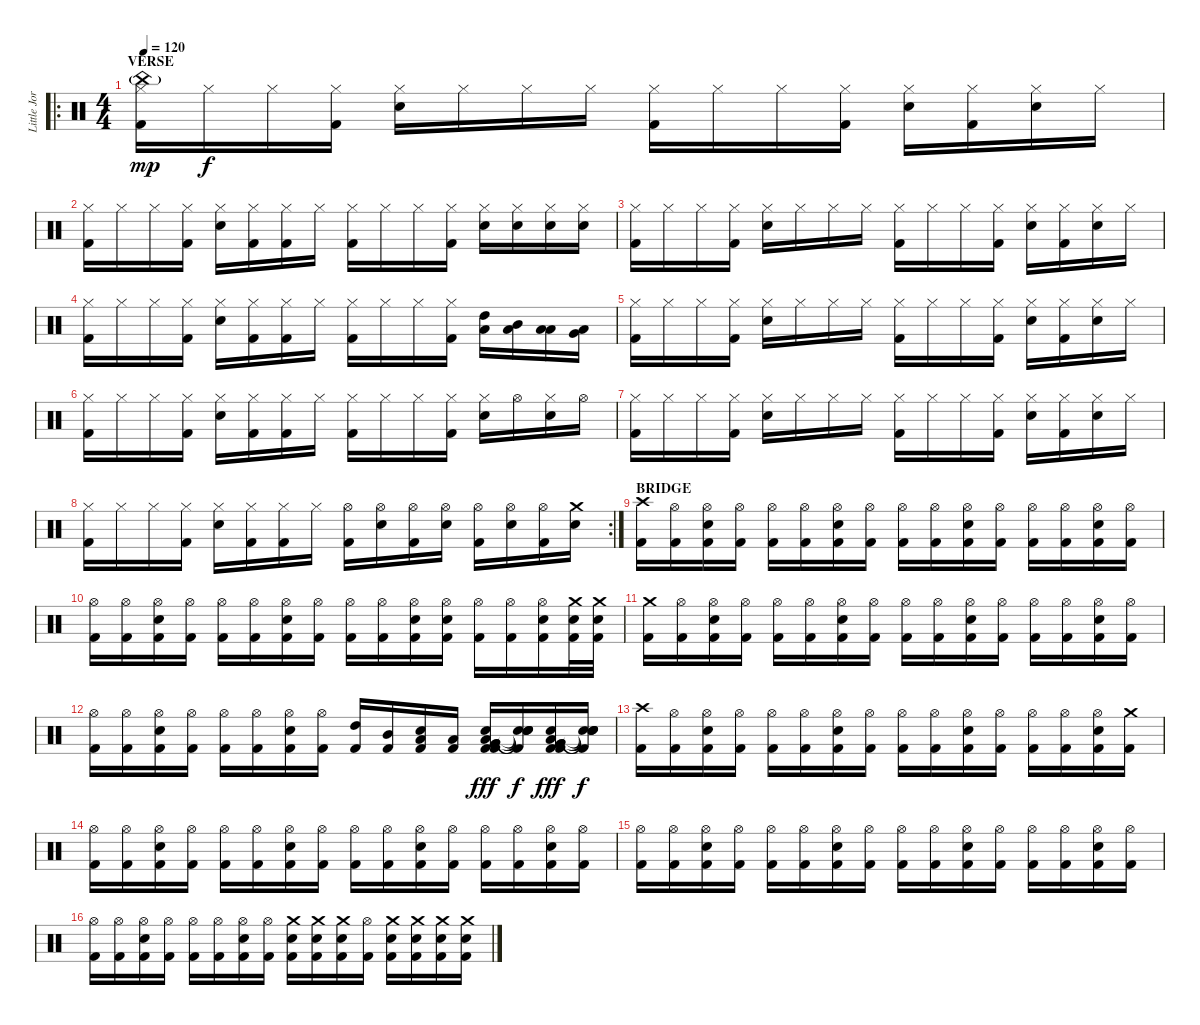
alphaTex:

\track ("Little Jordison" "Little Jor") {instrument percussion}
\staff {score}
\articulation defaults
\ro
\ts (4 4)
\section ("" "VERSE")
\tempo 120
\clef neutral
\ks c
("China (hit)"{g} "Hi-Hat (closed)" "Kick (hit) 2").16{dy mp} "Hi-Hat (closed)".16{dy f} "Hi-Hat (closed)".16 ("Hi-Hat (closed)" "Kick (hit) 2").16 ("Hi-Hat (closed)" "Electric Snare (hit)").16 "Hi-Hat (closed)".16 "Hi-Hat (closed)".16 "Hi-Hat (closed)".16 ("Hi-Hat (closed)" "Kick (hit) 2").16 "Hi-Hat (closed)".16 "Hi-Hat (closed)".16 ("Hi-Hat (closed)" "Kick (hit) 2").16 ("Hi-Hat (closed)" "Electric Snare (hit)").16 ("Hi-Hat (closed)" "Kick (hit) 2").16 ("Hi-Hat (closed)" "Electric Snare (hit)").16 "Hi-Hat (closed)".16 |
("Hi-Hat (closed)" "Kick (hit) 2").16 "Hi-Hat (closed)".16 "Hi-Hat (closed)".16 ("Hi-Hat (closed)" "Kick (hit) 2").16 ("Hi-Hat (closed)" "Electric Snare (hit)").16 ("Hi-Hat (closed)" "Kick (hit) 2").16 ("Hi-Hat (closed)" "Kick (hit) 2").16 "Hi-Hat (closed)".16 ("Hi-Hat (closed)" "Kick (hit) 2").16 "Hi-Hat (closed)".16 "Hi-Hat (closed)".16 ("Hi-Hat (closed)" "Kick (hit) 2").16 ("Hi-Hat (closed)" "Electric Snare (hit)").16 ("Hi-Hat (closed)" "Electric Snare (hit)").16 ("Hi-Hat (closed)" "Electric Snare (hit)").16 ("Hi-Hat (closed)" "Electric Snare (hit)").16 |
("Hi-Hat (closed)" "Kick (hit) 2").16 "Hi-Hat (closed)".16 "Hi-Hat (closed)".16 ("Hi-Hat (closed)" "Kick (hit) 2").16 ("Hi-Hat (closed)" "Electric Snare (hit)").16 "Hi-Hat (closed)".16 "Hi-Hat (closed)".16 "Hi-Hat (closed)".16 ("Hi-Hat (closed)" "Kick (hit) 2").16 "Hi-Hat (closed)".16 "Hi-Hat (closed)".16 ("Hi-Hat (closed)" "Kick (hit) 2").16 ("Hi-Hat (closed)" "Electric Snare (hit)").16 ("Hi-Hat (closed)" "Kick (hit) 2").16 ("Hi-Hat (closed)" "Electric Snare (hit)").16 "Hi-Hat (closed)".16 |
("Hi-Hat (closed)" "Kick (hit) 2").16 "Hi-Hat (closed)".16 "Hi-Hat (closed)".16 ("Hi-Hat (closed)" "Kick (hit) 2").16 ("Hi-Hat (closed)" "Electric Snare (hit)").16 ("Hi-Hat (closed)" "Kick (hit) 2").16 ("Hi-Hat (closed)" "Kick (hit) 2").16 "Hi-Hat (closed)".16 ("Hi-Hat (closed)" "Kick (hit) 2").16 "Hi-Hat (closed)".16 "Hi-Hat (closed)".16 ("Hi-Hat (closed)" "Kick (hit) 2").16 ("High Tom (hit)" "Low Floor Tom (hit)").16 ("Mid Tom (hit)" "Low Floor Tom (hit)").16 ("Low Tom (hit)" "Low Floor Tom (hit)").16 ("Very Low Tom (hit)" "Low Floor Tom (hit)").16 |
("Hi-Hat (closed)" "Kick (hit) 2").16 "Hi-Hat (closed)".16 "Hi-Hat (closed)".16 ("Hi-Hat (closed)" "Kick (hit) 2").16 ("Hi-Hat (closed)" "Electric Snare (hit)").16 "Hi-Hat (closed)".16 "Hi-Hat (closed)".16 "Hi-Hat (closed)".16 ("Hi-Hat (closed)" "Kick (hit) 2").16 "Hi-Hat (closed)".16 "Hi-Hat (closed)".16 ("Hi-Hat (closed)" "Kick (hit) 2").16 ("Hi-Hat (closed)" "Electric Snare (hit)").16 ("Hi-Hat (closed)" "Kick (hit) 2").16 ("Hi-Hat (closed)" "Electric Snare (hit)").16 "Hi-Hat (closed)".16 |
("Hi-Hat (closed)" "Kick (hit) 2").16 "Hi-Hat (closed)".16 "Hi-Hat (closed)".16 ("Hi-Hat (closed)" "Kick (hit) 2").16 ("Hi-Hat (closed)" "Electric Snare (hit)").16 ("Hi-Hat (closed)" "Kick (hit) 2").16 ("Hi-Hat (closed)" "Kick (hit) 2").16 "Hi-Hat (closed)".16 ("Hi-Hat (closed)" "Kick (hit) 2").16 "Hi-Hat (closed)".16 "Hi-Hat (closed)".16 ("Hi-Hat (closed)" "Kick (hit) 2").16 ("Hi-Hat (closed)" "Electric Snare (hit)").16 "Hi-Hat (open)".16 ("Hi-Hat (closed)" "Electric Snare (hit)").16 "Hi-Hat (open)".16 |
("Hi-Hat (closed)" "Kick (hit) 2").16 "Hi-Hat (closed)".16 "Hi-Hat (closed)".16 ("Hi-Hat (closed)" "Kick (hit) 2").16 ("Hi-Hat (closed)" "Electric Snare (hit)").16 "Hi-Hat (closed)".16 "Hi-Hat (closed)".16 "Hi-Hat (closed)".16 ("Hi-Hat (closed)" "Kick (hit) 2").16 "Hi-Hat (closed)".16 "Hi-Hat (closed)".16 ("Hi-Hat (closed)" "Kick (hit) 2").16 ("Hi-Hat (closed)" "Electric Snare (hit)").16 ("Hi-Hat (closed)" "Kick (hit) 2").16 ("Hi-Hat (closed)" "Electric Snare (hit)").16 "Hi-Hat (closed)".16 |
\rc 2
("Hi-Hat (closed)" "Kick (hit) 2").16 "Hi-Hat (closed)".16 "Hi-Hat (closed)".16 ("Hi-Hat (closed)" "Kick (hit) 2").16 ("Hi-Hat (closed)" "Electric Snare (hit)").16 ("Hi-Hat (closed)" "Kick (hit) 2").16 ("Hi-Hat (closed)" "Kick (hit) 2").16 "Hi-Hat (closed)".16 ("Hi-Hat (open)" "Kick (hit) 2").16 ("Hi-Hat (open)" "Electric Snare (hit)").16 ("Hi-Hat (open)" "Kick (hit) 2").16 ("Hi-Hat (open)" "Electric Snare (hit)").16 ("Hi-Hat (open)" "Kick (hit) 2").16 ("Hi-Hat (open)" "Electric Snare (hit)").16 ("Hi-Hat (open)" "Kick (hit) 2").16 ("Crash medium (hit)" "Electric Snare (hit)").16 |
\section ("" "BRIDGE")
("Crash high (hit)" "Kick (hit) 2").16 ("Hi-Hat (open)" "Kick (hit) 2").16 ("Hi-Hat (open)" "Electric Snare (hit)" "Kick (hit) 2").16 ("Hi-Hat (open)" "Kick (hit) 2").16 ("Hi-Hat (open)" "Kick (hit) 2").16 ("Hi-Hat (open)" "Kick (hit) 2").16 ("Hi-Hat (open)" "Electric Snare (hit)" "Kick (hit) 2").16 ("Hi-Hat (open)" "Kick (hit) 2").16 ("Hi-Hat (open)" "Kick (hit) 2").16 ("Hi-Hat (open)" "Kick (hit) 2").16 ("Hi-Hat (open)" "Electric Snare (hit)" "Kick (hit) 2").16 ("Hi-Hat (open)" "Kick (hit) 2").16 ("Hi-Hat (open)" "Kick (hit) 2").16 ("Hi-Hat (open)" "Kick (hit) 2").16 ("Hi-Hat (open)" "Electric Snare (hit)" "Kick (hit) 2").16 ("Hi-Hat (open)" "Kick (hit) 2").16 |
("Hi-Hat (open)" "Kick (hit) 2").16 ("Hi-Hat (open)" "Kick (hit) 2").16 ("Hi-Hat (open)" "Electric Snare (hit)" "Kick (hit) 2").16 ("Hi-Hat (open)" "Kick (hit) 2").16 ("Hi-Hat (open)" "Kick (hit) 2").16 ("Hi-Hat (open)" "Kick (hit) 2").16 ("Hi-Hat (open)" "Electric Snare (hit)" "Kick (hit) 2").16 ("Hi-Hat (open)" "Kick (hit) 2").16 ("Hi-Hat (open)" "Kick (hit) 2").16 ("Hi-Hat (open)" "Kick (hit) 2").16 ("Hi-Hat (open)" "Electric Snare (hit)" "Kick (hit) 2").16 ("Hi-Hat (open)" "Electric Snare (hit)" "Kick (hit) 2").16 ("Hi-Hat (open)" "Kick (hit) 2").16 ("Hi-Hat (open)" "Kick (hit) 2").16 ("Hi-Hat (open)" "Electric Snare (hit)" "Kick (hit) 2").16 ("Crash medium (hit)" "Electric Snare (hit)" "Kick (hit) 2").32 ("Crash medium (hit)" "Electric Snare (hit)" "Kick (hit) 2").32 |
("Crash medium (hit)" "Kick (hit) 2").16 ("Hi-Hat (open)" "Kick (hit) 2").16 ("Hi-Hat (open)" "Electric Snare (hit)" "Kick (hit) 2").16 ("Hi-Hat (open)" "Kick (hit) 2").16 ("Hi-Hat (open)" "Kick (hit) 2").16 ("Hi-Hat (open)" "Kick (hit) 2").16 ("Hi-Hat (open)" "Electric Snare (hit)" "Kick (hit) 2").16 ("Hi-Hat (open)" "Kick (hit) 2").16 ("Hi-Hat (open)" "Kick (hit) 2").16 ("Hi-Hat (open)" "Kick (hit) 2").16 ("Hi-Hat (open)" "Electric Snare (hit)" "Kick (hit) 2").16 ("Hi-Hat (open)" "Kick (hit) 2").16 ("Hi-Hat (open)" "Kick (hit) 2").16 ("Hi-Hat (open)" "Kick (hit) 2").16 ("Hi-Hat (open)" "Electric Snare (hit)" "Kick (hit) 2").16 ("Hi-Hat (open)" "Kick (hit) 2").16 |
("Hi-Hat (open)" "Kick (hit) 2").16 ("Hi-Hat (open)" "Kick (hit) 2").16 ("Hi-Hat (open)" "Electric Snare (hit)" "Kick (hit) 2").16 ("Hi-Hat (open)" "Kick (hit) 2").16 ("Hi-Hat (open)" "Kick (hit) 2").16 ("Hi-Hat (open)" "Kick (hit) 2").16 ("Hi-Hat (open)" "Electric Snare (hit)" "Kick (hit) 2").16 ("Hi-Hat (open)" "Kick (hit) 2").16 ("High Tom (hit)" "Kick (hit) 2").16 ("Mid Tom (hit)" "Kick (hit) 2").16 ("Low Tom (hit)" "Electric Snare (hit)" "Kick (hit) 2").16 ("Low Tom (hit)" "Kick (hit) 2").16 ("Kick (hit) 2" "Very Low Tom (hit)" "Low Tom (hit)" "Very Low Tom (hit)" "Electric Snare (hit)" "Kick (hit) 2").16{dy fff} ("Snare (hit)"{t} "Snare (hit)"{t} "Snare (hit)"{t} "Snare (hit)"{t} "Kick (hit) 2"{t}).16{dy f} ("Kick (hit) 2" "Very Low Tom (hit)" "Low Tom (hit)" "Very Low Tom (hit)" "Electric Snare (hit)" "Kick (hit) 2").16{dy fff} ("Snare (hit)"{t} "Snare (hit)"{t} "Snare (hit)"{t} "Snare (hit)"{t} "Kick (hit) 2"{t}).16{dy f} |
("Crash high (hit)" "Kick (hit) 2").16 ("Hi-Hat (open)" "Kick (hit) 2").16 ("Hi-Hat (open)" "Electric Snare (hit)" "Kick (hit) 2").16 ("Hi-Hat (open)" "Kick (hit) 2").16 ("Hi-Hat (open)" "Kick (hit) 2").16 ("Hi-Hat (open)" "Kick (hit) 2").16 ("Hi-Hat (open)" "Electric Snare (hit)" "Kick (hit) 2").16 ("Hi-Hat (open)" "Kick (hit) 2").16 ("Hi-Hat (open)" "Kick (hit) 2").16 ("Hi-Hat (open)" "Kick (hit) 2").16 ("Hi-Hat (open)" "Electric Snare (hit)" "Kick (hit) 2").16 ("Hi-Hat (open)" "Kick (hit) 2").16 ("Hi-Hat (open)" "Kick (hit) 2").16 ("Hi-Hat (open)" "Kick (hit) 2").16 ("Hi-Hat (open)" "Electric Snare (hit)" "Kick (hit) 2").16 ("Crash medium (hit)" "Kick (hit) 2").16 |
("Hi-Hat (open)" "Kick (hit) 2").16 ("Hi-Hat (open)" "Kick (hit) 2").16 ("Hi-Hat (open)" "Electric Snare (hit)" "Kick (hit) 2").16 ("Hi-Hat (open)" "Kick (hit) 2").16 ("Hi-Hat (open)" "Kick (hit) 2").16 ("Hi-Hat (open)" "Kick (hit) 2").16 ("Hi-Hat (open)" "Electric Snare (hit)" "Kick (hit) 2").16 ("Hi-Hat (open)" "Kick (hit) 2").16 ("Hi-Hat (open)" "Kick (hit) 2").16 ("Hi-Hat (open)" "Kick (hit) 2").16 ("Hi-Hat (open)" "Electric Snare (hit)" "Kick (hit) 2").16 ("Hi-Hat (open)" "Kick (hit) 2").16 ("Hi-Hat (open)" "Kick (hit) 2").16 ("Hi-Hat (open)" "Kick (hit) 2").16 ("Hi-Hat (open)" "Electric Snare (hit)" "Kick (hit) 2").16 ("Hi-Hat (open)" "Kick (hit) 2").16 |
("Hi-Hat (open)" "Kick (hit) 2").16 ("Hi-Hat (open)" "Kick (hit) 2").16 ("Hi-Hat (open)" "Electric Snare (hit)" "Kick (hit) 2").16 ("Hi-Hat (open)" "Kick (hit) 2").16 ("Hi-Hat (open)" "Kick (hit) 2").16 ("Hi-Hat (open)" "Kick (hit) 2").16 ("Hi-Hat (open)" "Electric Snare (hit)" "Kick (hit) 2").16 ("Hi-Hat (open)" "Kick (hit) 2").16 ("Hi-Hat (open)" "Kick (hit) 2").16 ("Hi-Hat (open)" "Kick (hit) 2").16 ("Hi-Hat (open)" "Electric Snare (hit)" "Kick (hit) 2").16 ("Hi-Hat (open)" "Kick (hit) 2").16 ("Hi-Hat (open)" "Kick (hit) 2").16 ("Hi-Hat (open)" "Kick (hit) 2").16 ("Hi-Hat (open)" "Electric Snare (hit)" "Kick (hit) 2").16 ("Hi-Hat (open)" "Kick (hit) 2").16 |
("Hi-Hat (open)" "Kick (hit) 2").16 ("Hi-Hat (open)" "Kick (hit) 2").16 ("Hi-Hat (open)" "Electric Snare (hit)" "Kick (hit) 2").16 ("Hi-Hat (open)" "Kick (hit) 2").16 ("Hi-Hat (open)" "Kick (hit) 2").16 ("Hi-Hat (open)" "Kick (hit) 2").16 ("Hi-Hat (open)" "Electric Snare (hit)" "Kick (hit) 2").16 ("Hi-Hat (open)" "Kick (hit) 2").16 ("Crash medium (hit)" "Electric Snare (hit)" "Kick (hit) 2").16 ("Crash medium (hit)" "Electric Snare (hit)" "Kick (hit) 2").16 ("Crash medium (hit)" "Electric Snare (hit)" "Kick (hit) 2").16 ("Hi-Hat (open)" "Kick (hit) 2").16 ("Crash medium (hit)" "Electric Snare (hit)" "Kick (hit) 2").16 ("Crash medium (hit)" "Electric Snare (hit)" "Kick (hit) 2").16 ("Crash medium (hit)" "Electric Snare (hit)" "Kick (hit) 2").16 ("Crash medium (hit)" "Electric Snare (hit)" "Kick (hit) 2").16
